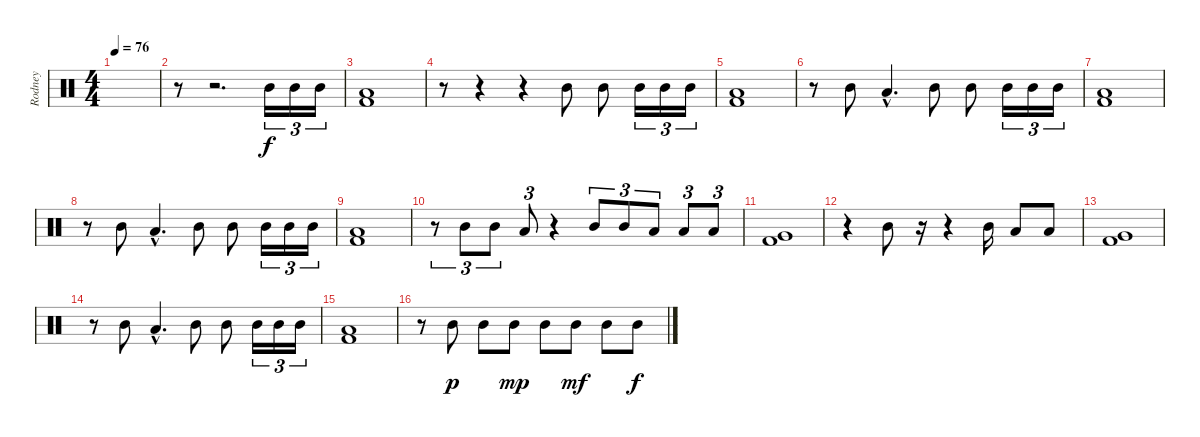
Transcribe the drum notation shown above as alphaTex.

\track ("Rodney" "Rodney") {instrument percussion}
\staff {score}
\articulation defaults
\ts (4 4)
\tempo 76
\tempo 110
\tempo 76
\clef neutral
\ks c
|
r.8 r.2{d} "Mid Tom (hit)".16{tu (3 2)} "Mid Tom (hit)".16{tu (3 2)} "Mid Tom (hit)".16{tu (3 2)} |
("Low Tom (hit)" "Kick (hit) 2").1 |
r.8 r.4 r.4 "Mid Tom (hit)".8 "Mid Tom (hit)".8 "Mid Tom (hit)".16{tu (3 2)} "Mid Tom (hit)".16{tu (3 2)} "Mid Tom (hit)".16{tu (3 2)} |
("Low Tom (hit)" "Kick (hit) 2").1 |
r.8 "Mid Tom (hit)".8 "Low Tom (hit)"{hac}.4{d} "Mid Tom (hit)".8 "Mid Tom (hit)".8 "Mid Tom (hit)".16{tu (3 2)} "Mid Tom (hit)".16{tu (3 2)} "Mid Tom (hit)".16{tu (3 2)} |
("Low Tom (hit)" "Kick (hit) 2").1 |
r.8 "Mid Tom (hit)".8 "Low Tom (hit)"{hac}.4{d} "Mid Tom (hit)".8 "Mid Tom (hit)".8 "Mid Tom (hit)".16{tu (3 2)} "Mid Tom (hit)".16{tu (3 2)} "Mid Tom (hit)".16{tu (3 2)} |
("Low Tom (hit)" "Kick (hit) 2").1 |
r.8{tu (3 2)} "Mid Tom (hit)".8{tu (3 2)} "Mid Tom (hit)".8{tu (3 2)} "Low Tom (hit)".8{tu (3 2)} r.4 "Mid Tom (hit)".8{tu (3 2)} "Mid Tom (hit)".8{tu (3 2)} "Low Tom (hit)".8{tu (3 2)} "Low Tom (hit)".8{tu (3 2)} "Low Tom (hit)".8{tu (3 2)} |
("Very Low Tom (hit)" "Kick (hit) 2").1 |
r.4 "Mid Tom (hit)".8 r.16 r.4 "Mid Tom (hit)".16 "Low Tom (hit)".8 "Low Tom (hit)".8 |
("Very Low Tom (hit)" "Kick (hit) 2").1 |
r.8 "Mid Tom (hit)".8 "Low Tom (hit)"{hac}.4{d} "Mid Tom (hit)".8 "Mid Tom (hit)".8 "Mid Tom (hit)".16{tu (3 2)} "Mid Tom (hit)".16{tu (3 2)} "Mid Tom (hit)".16{tu (3 2)} |
("Low Tom (hit)" "Kick (hit) 2").1 |
r.8 "Mid Tom (hit)".8{dy p} "Mid Tom (hit)".8 "Mid Tom (hit)".8{dy mp} "Mid Tom (hit)".8 "Mid Tom (hit)".8{dy mf} "Mid Tom (hit)".8 "Mid Tom (hit)".8{dy f}
